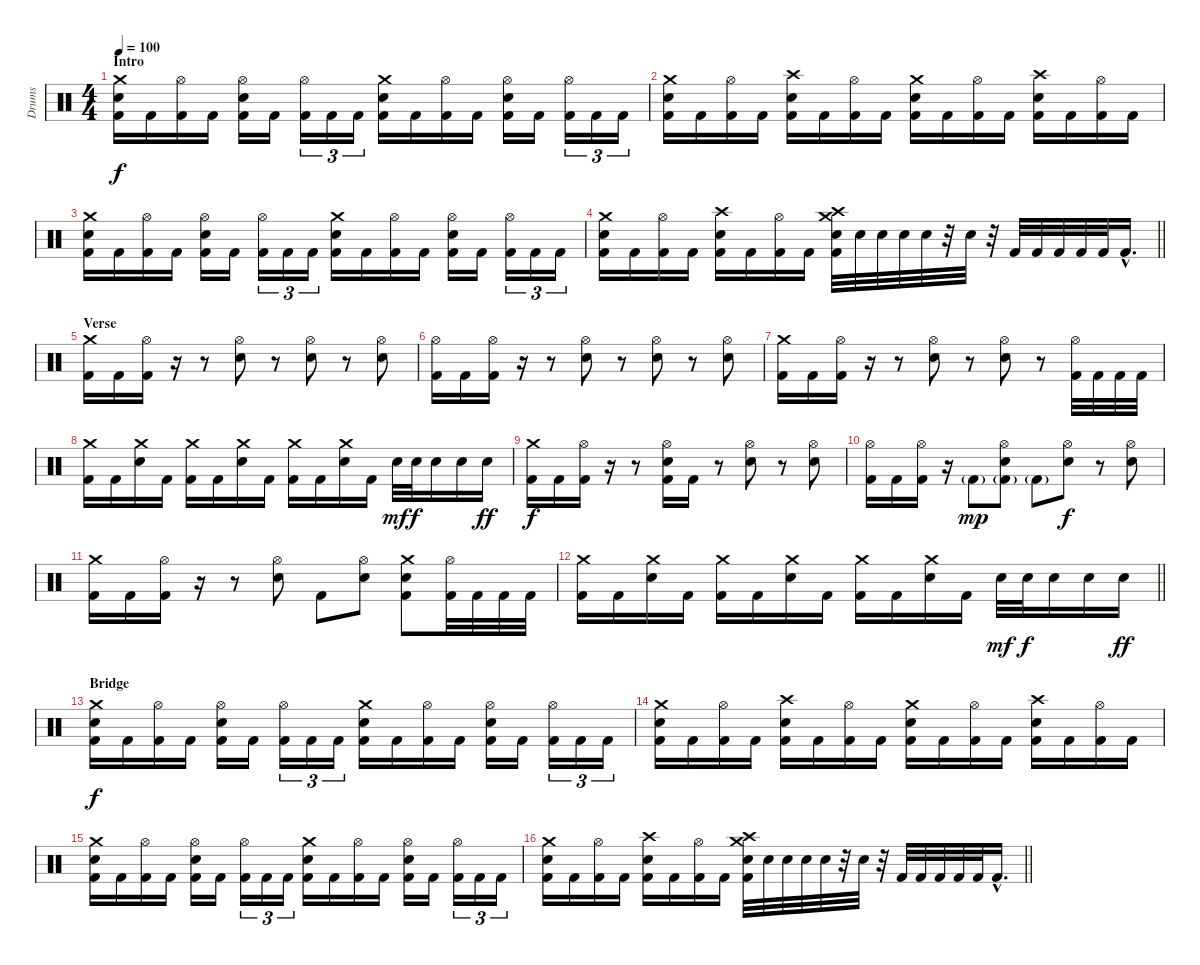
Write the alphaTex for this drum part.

\track ("Drums" "Drums") {instrument percussion}
\staff {score}
\articulation defaults
\ts (4 4)
\section ("" "Intro")
\tempo 100
\clef neutral
\ks c
("Crash medium (hit)" "Electric Snare (hit)" "Kick (hit) 2").16{dy f} "Kick (hit) 2".16 ("Hi-Hat (open)" "Kick (hit) 2").16 "Kick (hit) 2".16 ("Hi-Hat (open)" "Electric Snare (hit)" "Kick (hit) 2").16 "Kick (hit) 2".16 ("Hi-Hat (open)" "Kick (hit) 2").16{tu (3 2)} "Kick (hit) 2".16{tu (3 2)} "Kick (hit) 2".16{tu (3 2)} ("Crash medium (hit)" "Electric Snare (hit)" "Kick (hit) 2").16 "Kick (hit) 2".16 ("Hi-Hat (open)" "Kick (hit) 2").16 "Kick (hit) 2".16 ("Hi-Hat (open)" "Electric Snare (hit)" "Kick (hit) 2").16 "Kick (hit) 2".16 ("Hi-Hat (open)" "Kick (hit) 2").16{tu (3 2)} "Kick (hit) 2".16{tu (3 2)} "Kick (hit) 2".16{tu (3 2)} |
("Crash medium (hit)" "Electric Snare (hit)" "Kick (hit) 2").16 "Kick (hit) 2".16 ("Hi-Hat (open)" "Kick (hit) 2").16 "Kick (hit) 2".16 ("Crash high (hit)" "Electric Snare (hit)" "Kick (hit) 2").16 "Kick (hit) 2".16 ("Hi-Hat (open)" "Kick (hit) 2").16 "Kick (hit) 2".16 ("Crash medium (hit)" "Electric Snare (hit)" "Kick (hit) 2").16 "Kick (hit) 2".16 ("Hi-Hat (open)" "Kick (hit) 2").16 "Kick (hit) 2".16 ("Crash high (hit)" "Electric Snare (hit)" "Kick (hit) 2").16 "Kick (hit) 2".16 ("Hi-Hat (open)" "Kick (hit) 2").16 "Kick (hit) 2".16 |
("Crash medium (hit)" "Electric Snare (hit)" "Kick (hit) 2").16 "Kick (hit) 2".16 ("Hi-Hat (open)" "Kick (hit) 2").16 "Kick (hit) 2".16 ("Hi-Hat (open)" "Electric Snare (hit)" "Kick (hit) 2").16 "Kick (hit) 2".16 ("Hi-Hat (open)" "Kick (hit) 2").16{tu (3 2)} "Kick (hit) 2".16{tu (3 2)} "Kick (hit) 2".16{tu (3 2)} ("Crash medium (hit)" "Electric Snare (hit)" "Kick (hit) 2").16 "Kick (hit) 2".16 ("Hi-Hat (open)" "Kick (hit) 2").16 "Kick (hit) 2".16 ("Hi-Hat (open)" "Electric Snare (hit)" "Kick (hit) 2").16 "Kick (hit) 2".16 ("Hi-Hat (open)" "Kick (hit) 2").16{tu (3 2)} "Kick (hit) 2".16{tu (3 2)} "Kick (hit) 2".16{tu (3 2)} |
\barLineRight lightlight
("Crash medium (hit)" "Electric Snare (hit)" "Kick (hit) 2").16 "Kick (hit) 2".16 ("Hi-Hat (open)" "Kick (hit) 2").16 "Kick (hit) 2".16 ("Crash high (hit)" "Electric Snare (hit)" "Kick (hit) 2").16 "Kick (hit) 2".16 ("Hi-Hat (open)" "Kick (hit) 2").16 "Kick (hit) 2".16 ("Crash medium (hit)" "Crash high (hit)" "Electric Snare (hit)" "Kick (hit) 2").32 "Electric Snare (hit)".32 "Electric Snare (hit)".32 "Electric Snare (hit)".32 "Electric Snare (hit)".32 r.32 "Electric Snare (hit)".32 r.32 "Kick (hit) 2".32 "Kick (hit) 2".32 "Kick (hit) 2".32 "Kick (hit) 2".32 "Kick (hit) 2".32 "Kick (hit) 2"{hac}.16{d} |
\section ("" "Verse")
("Crash medium (hit)" "Kick (hit) 2").16 "Kick (hit) 2".16 ("Hi-Hat (open)" "Kick (hit) 2").16 r.16 r.8 ("Hi-Hat (open)" "Electric Snare (hit)").8 r.8 ("Hi-Hat (open)" "Electric Snare (hit)").8 r.8 ("Hi-Hat (open)" "Electric Snare (hit)").8 |
("Hi-Hat (open)" "Kick (hit) 2").16 "Kick (hit) 2".16 ("Hi-Hat (open)" "Kick (hit) 2").16 r.16 r.8 ("Hi-Hat (open)" "Electric Snare (hit)").8 r.8 ("Hi-Hat (open)" "Electric Snare (hit)").8 r.8 ("Hi-Hat (open)" "Electric Snare (hit)").8 |
("Crash medium (hit)" "Kick (hit) 2").16 "Kick (hit) 2".16 ("Hi-Hat (open)" "Kick (hit) 2").16 r.16 r.8 ("Hi-Hat (open)" "Electric Snare (hit)").8 r.8 ("Hi-Hat (open)" "Electric Snare (hit)").8 r.8 ("Hi-Hat (open)" "Kick (hit) 2").32 "Kick (hit) 2".32 "Kick (hit) 2".32 "Kick (hit) 2".32 |
("Crash medium (hit)" "Kick (hit) 2").16 "Kick (hit) 2".16 ("Crash medium (hit)" "Electric Snare (hit)").16 "Kick (hit) 2".16 ("Crash medium (hit)" "Kick (hit) 2").16 "Kick (hit) 2".16 ("Crash medium (hit)" "Electric Snare (hit)").16 "Kick (hit) 2".16 ("Crash medium (hit)" "Kick (hit) 2").16 "Kick (hit) 2".16 ("Crash medium (hit)" "Electric Snare (hit)").16 "Kick (hit) 2".16 "Electric Snare (hit)".32{dy mf} "Electric Snare (hit)".32{dy f} "Electric Snare (hit)".16 "Electric Snare (hit)".16 "Electric Snare (hit)".16{dy ff} |
("Crash medium (hit)" "Kick (hit) 2").16{dy f} "Kick (hit) 2".16 ("Hi-Hat (open)" "Kick (hit) 2").16 r.16 r.8 ("Hi-Hat (open)" "Electric Snare (hit)" "Kick (hit) 2").16 "Kick (hit) 2".16 r.8 ("Hi-Hat (open)" "Electric Snare (hit)").8 r.8 ("Hi-Hat (open)" "Electric Snare (hit)").8 |
("Hi-Hat (open)" "Kick (hit) 2").16 "Kick (hit) 2".16 ("Hi-Hat (open)" "Kick (hit) 2").16 r.16 "Kick (hit) 2"{g}.8{dy mp} ("Hi-Hat (open)" "Electric Snare (hit)" "Kick (hit) 2"{g}).8 "Kick (hit) 2"{g}.8 ("Hi-Hat (open)" "Electric Snare (hit)").8{dy f} r.8 ("Hi-Hat (open)" "Electric Snare (hit)").8 |
("Crash medium (hit)" "Kick (hit) 2").16 "Kick (hit) 2".16 ("Hi-Hat (open)" "Kick (hit) 2").16 r.16 r.8 ("Hi-Hat (open)" "Electric Snare (hit)").8 "Kick (hit) 2".8 ("Hi-Hat (open)" "Electric Snare (hit)").8 ("Crash medium (hit)" "Electric Snare (hit)" "Kick (hit) 2").8 ("Hi-Hat (open)" "Kick (hit) 2").32 "Kick (hit) 2".32 "Kick (hit) 2".32 "Kick (hit) 2".32 |
\barLineRight lightlight
("Crash medium (hit)" "Kick (hit) 2").16 "Kick (hit) 2".16 ("Crash medium (hit)" "Electric Snare (hit)").16 "Kick (hit) 2".16 ("Crash medium (hit)" "Kick (hit) 2").16 "Kick (hit) 2".16 ("Crash medium (hit)" "Electric Snare (hit)").16 "Kick (hit) 2".16 ("Crash medium (hit)" "Kick (hit) 2").16 "Kick (hit) 2".16 ("Crash medium (hit)" "Electric Snare (hit)").16 "Kick (hit) 2".16 "Electric Snare (hit)".32{dy mf} "Electric Snare (hit)".32{dy f} "Electric Snare (hit)".16 "Electric Snare (hit)".16 "Electric Snare (hit)".16{dy ff} |
\section ("" "Bridge")
("Crash medium (hit)" "Electric Snare (hit)" "Kick (hit) 2").16{dy f} "Kick (hit) 2".16 ("Hi-Hat (open)" "Kick (hit) 2").16 "Kick (hit) 2".16 ("Hi-Hat (open)" "Electric Snare (hit)" "Kick (hit) 2").16 "Kick (hit) 2".16 ("Hi-Hat (open)" "Kick (hit) 2").16{tu (3 2)} "Kick (hit) 2".16{tu (3 2)} "Kick (hit) 2".16{tu (3 2)} ("Crash medium (hit)" "Electric Snare (hit)" "Kick (hit) 2").16 "Kick (hit) 2".16 ("Hi-Hat (open)" "Kick (hit) 2").16 "Kick (hit) 2".16 ("Hi-Hat (open)" "Electric Snare (hit)" "Kick (hit) 2").16 "Kick (hit) 2".16 ("Hi-Hat (open)" "Kick (hit) 2").16{tu (3 2)} "Kick (hit) 2".16{tu (3 2)} "Kick (hit) 2".16{tu (3 2)} |
("Crash medium (hit)" "Electric Snare (hit)" "Kick (hit) 2").16 "Kick (hit) 2".16 ("Hi-Hat (open)" "Kick (hit) 2").16 "Kick (hit) 2".16 ("Crash high (hit)" "Electric Snare (hit)" "Kick (hit) 2").16 "Kick (hit) 2".16 ("Hi-Hat (open)" "Kick (hit) 2").16 "Kick (hit) 2".16 ("Crash medium (hit)" "Electric Snare (hit)" "Kick (hit) 2").16 "Kick (hit) 2".16 ("Hi-Hat (open)" "Kick (hit) 2").16 "Kick (hit) 2".16 ("Crash high (hit)" "Electric Snare (hit)" "Kick (hit) 2").16 "Kick (hit) 2".16 ("Hi-Hat (open)" "Kick (hit) 2").16 "Kick (hit) 2".16 |
("Crash medium (hit)" "Electric Snare (hit)" "Kick (hit) 2").16 "Kick (hit) 2".16 ("Hi-Hat (open)" "Kick (hit) 2").16 "Kick (hit) 2".16 ("Hi-Hat (open)" "Electric Snare (hit)" "Kick (hit) 2").16 "Kick (hit) 2".16 ("Hi-Hat (open)" "Kick (hit) 2").16{tu (3 2)} "Kick (hit) 2".16{tu (3 2)} "Kick (hit) 2".16{tu (3 2)} ("Crash medium (hit)" "Electric Snare (hit)" "Kick (hit) 2").16 "Kick (hit) 2".16 ("Hi-Hat (open)" "Kick (hit) 2").16 "Kick (hit) 2".16 ("Hi-Hat (open)" "Electric Snare (hit)" "Kick (hit) 2").16 "Kick (hit) 2".16 ("Hi-Hat (open)" "Kick (hit) 2").16{tu (3 2)} "Kick (hit) 2".16{tu (3 2)} "Kick (hit) 2".16{tu (3 2)} |
\barLineRight lightlight
("Crash medium (hit)" "Electric Snare (hit)" "Kick (hit) 2").16 "Kick (hit) 2".16 ("Hi-Hat (open)" "Kick (hit) 2").16 "Kick (hit) 2".16 ("Crash high (hit)" "Electric Snare (hit)" "Kick (hit) 2").16 "Kick (hit) 2".16 ("Hi-Hat (open)" "Kick (hit) 2").16 "Kick (hit) 2".16 ("Crash medium (hit)" "Crash high (hit)" "Electric Snare (hit)" "Kick (hit) 2").32 "Electric Snare (hit)".32 "Electric Snare (hit)".32 "Electric Snare (hit)".32 "Electric Snare (hit)".32 r.32 "Electric Snare (hit)".32 r.32 "Kick (hit) 2".32 "Kick (hit) 2".32 "Kick (hit) 2".32 "Kick (hit) 2".32 "Kick (hit) 2".32 "Kick (hit) 2"{hac}.16{d}
